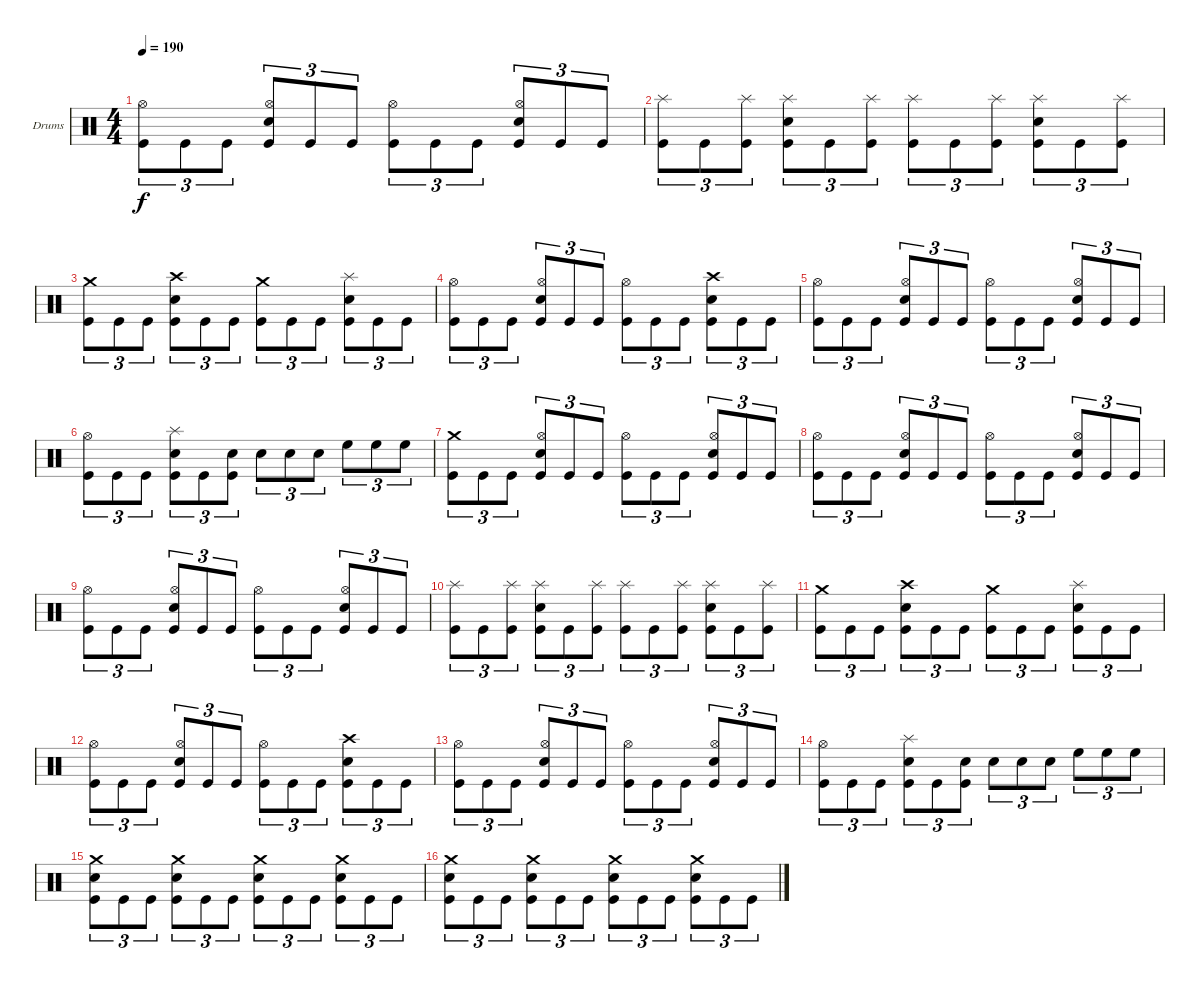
\bracketExtendMode groupsimilarinstruments
\firstSystemTrackNameOrientation horizontal
\otherSystemsTrackNameOrientation horizontal
\track ("Drumkit" "Drums") {instrument percussion}
\staff {score}
\articulation defaults
\ts (4 4)
\tempo 190
\clef neutral
\ks c
("Kick (hit)" "Hi-Hat (open)").8{tu (3 2) dy f} "Kick (hit)".8{tu (3 2)} "Kick (hit)".8{tu (3 2)} ("Kick (hit)" "Snare (hit) 2" "Hi-Hat (open)").8{tu (3 2)} "Kick (hit)".8{tu (3 2)} "Kick (hit)".8{tu (3 2)} ("Kick (hit)" "Hi-Hat (open)").8{tu (3 2)} "Kick (hit)".8{tu (3 2)} "Kick (hit)".8{tu (3 2)} ("Kick (hit)" "Snare (hit) 2" "Hi-Hat (open)").8{tu (3 2)} "Kick (hit)".8{tu (3 2)} "Kick (hit)".8{tu (3 2)} |
("Kick (hit)" "Splash (hit)").8{tu (3 2)} "Kick (hit)".8{tu (3 2)} ("Kick (hit)" "Splash (hit)").8{tu (3 2)} ("Kick (hit)" "Snare (hit) 2" "Splash (hit)").8{tu (3 2)} "Kick (hit)".8{tu (3 2)} ("Kick (hit)" "Splash (hit)").8{tu (3 2)} ("Kick (hit)" "Splash (hit)").8{tu (3 2)} "Kick (hit)".8{tu (3 2)} ("Kick (hit)" "Splash (hit)").8{tu (3 2)} ("Kick (hit)" "Snare (hit) 2" "Splash (hit)").8{tu (3 2)} "Kick (hit)".8{tu (3 2)} ("Kick (hit)" "Splash (hit)").8{tu (3 2)} |
("Kick (hit)" "Crash medium (hit)").8{tu (3 2)} "Kick (hit)".8{tu (3 2)} "Kick (hit)".8{tu (3 2)} ("Kick (hit)" "Snare (hit) 2" "Crash high (hit)").8{tu (3 2)} "Kick (hit)".8{tu (3 2)} "Kick (hit)".8{tu (3 2)} ("Kick (hit)" "Crash medium (hit)").8{tu (3 2)} "Kick (hit)".8{tu (3 2)} "Kick (hit)".8{tu (3 2)} ("Kick (hit)" "Snare (hit) 2" "Splash (hit)").8{tu (3 2)} "Kick (hit)".8{tu (3 2)} "Kick (hit)".8{tu (3 2)} |
("Kick (hit)" "Hi-Hat (open)").8{tu (3 2)} "Kick (hit)".8{tu (3 2)} "Kick (hit)".8{tu (3 2)} ("Kick (hit)" "Snare (hit) 2" "Hi-Hat (open)").8{tu (3 2)} "Kick (hit)".8{tu (3 2)} "Kick (hit)".8{tu (3 2)} ("Kick (hit)" "Hi-Hat (open)").8{tu (3 2)} "Kick (hit)".8{tu (3 2)} "Kick (hit)".8{tu (3 2)} ("Kick (hit)" "Snare (hit) 2" "Crash high (hit)").8{tu (3 2)} "Kick (hit)".8{tu (3 2)} "Kick (hit)".8{tu (3 2)} |
("Kick (hit)" "Hi-Hat (open)").8{tu (3 2)} "Kick (hit)".8{tu (3 2)} "Kick (hit)".8{tu (3 2)} ("Kick (hit)" "Snare (hit) 2" "Hi-Hat (open)").8{tu (3 2)} "Kick (hit)".8{tu (3 2)} "Kick (hit)".8{tu (3 2)} ("Kick (hit)" "Hi-Hat (open)").8{tu (3 2)} "Kick (hit)".8{tu (3 2)} "Kick (hit)".8{tu (3 2)} ("Kick (hit)" "Snare (hit) 2" "Hi-Hat (open)").8{tu (3 2)} "Kick (hit)".8{tu (3 2)} "Kick (hit)".8{tu (3 2)} |
("Kick (hit)" "Hi-Hat (open)").8{tu (3 2)} "Kick (hit)".8{tu (3 2)} "Kick (hit)".8{tu (3 2)} ("Kick (hit)" "Snare (hit) 2" "Splash (hit)").8{tu (3 2)} "Kick (hit)".8{tu (3 2)} ("Kick (hit)" "Snare (hit) 2").8{tu (3 2)} "Snare (hit) 2".8{tu (3 2)} "Snare (hit) 2".8{tu (3 2)} "Snare (hit) 2".8{tu (3 2)} "High Floor Tom (hit)".8{tu (3 2)} "High Floor Tom (hit)".8{tu (3 2)} "High Floor Tom (hit)".8{tu (3 2)} |
("Kick (hit)" "Crash medium (hit)").8{tu (3 2)} "Kick (hit)".8{tu (3 2)} "Kick (hit)".8{tu (3 2)} ("Kick (hit)" "Snare (hit) 2" "Hi-Hat (open)").8{tu (3 2)} "Kick (hit)".8{tu (3 2)} "Kick (hit)".8{tu (3 2)} ("Kick (hit)" "Hi-Hat (open)").8{tu (3 2)} "Kick (hit)".8{tu (3 2)} "Kick (hit)".8{tu (3 2)} ("Kick (hit)" "Snare (hit) 2" "Hi-Hat (open)").8{tu (3 2)} "Kick (hit)".8{tu (3 2)} "Kick (hit)".8{tu (3 2)} |
("Kick (hit)" "Hi-Hat (open)").8{tu (3 2)} "Kick (hit)".8{tu (3 2)} "Kick (hit)".8{tu (3 2)} ("Kick (hit)" "Snare (hit) 2" "Hi-Hat (open)").8{tu (3 2)} "Kick (hit)".8{tu (3 2)} "Kick (hit)".8{tu (3 2)} ("Kick (hit)" "Hi-Hat (open)").8{tu (3 2)} "Kick (hit)".8{tu (3 2)} "Kick (hit)".8{tu (3 2)} ("Kick (hit)" "Snare (hit) 2" "Hi-Hat (open)").8{tu (3 2)} "Kick (hit)".8{tu (3 2)} "Kick (hit)".8{tu (3 2)} |
("Kick (hit)" "Hi-Hat (open)").8{tu (3 2)} "Kick (hit)".8{tu (3 2)} "Kick (hit)".8{tu (3 2)} ("Kick (hit)" "Snare (hit) 2" "Hi-Hat (open)").8{tu (3 2)} "Kick (hit)".8{tu (3 2)} "Kick (hit)".8{tu (3 2)} ("Kick (hit)" "Hi-Hat (open)").8{tu (3 2)} "Kick (hit)".8{tu (3 2)} "Kick (hit)".8{tu (3 2)} ("Kick (hit)" "Snare (hit) 2" "Hi-Hat (open)").8{tu (3 2)} "Kick (hit)".8{tu (3 2)} "Kick (hit)".8{tu (3 2)} |
("Kick (hit)" "Splash (hit)").8{tu (3 2)} "Kick (hit)".8{tu (3 2)} ("Kick (hit)" "Splash (hit)").8{tu (3 2)} ("Kick (hit)" "Snare (hit) 2" "Splash (hit)").8{tu (3 2)} "Kick (hit)".8{tu (3 2)} ("Kick (hit)" "Splash (hit)").8{tu (3 2)} ("Kick (hit)" "Splash (hit)").8{tu (3 2)} "Kick (hit)".8{tu (3 2)} ("Kick (hit)" "Splash (hit)").8{tu (3 2)} ("Kick (hit)" "Snare (hit) 2" "Splash (hit)").8{tu (3 2)} "Kick (hit)".8{tu (3 2)} ("Kick (hit)" "Splash (hit)").8{tu (3 2)} |
("Kick (hit)" "Crash medium (hit)").8{tu (3 2)} "Kick (hit)".8{tu (3 2)} "Kick (hit)".8{tu (3 2)} ("Kick (hit)" "Snare (hit) 2" "Crash high (hit)").8{tu (3 2)} "Kick (hit)".8{tu (3 2)} "Kick (hit)".8{tu (3 2)} ("Kick (hit)" "Crash medium (hit)").8{tu (3 2)} "Kick (hit)".8{tu (3 2)} "Kick (hit)".8{tu (3 2)} ("Kick (hit)" "Snare (hit) 2" "Splash (hit)").8{tu (3 2)} "Kick (hit)".8{tu (3 2)} "Kick (hit)".8{tu (3 2)} |
("Kick (hit)" "Hi-Hat (open)").8{tu (3 2)} "Kick (hit)".8{tu (3 2)} "Kick (hit)".8{tu (3 2)} ("Kick (hit)" "Snare (hit) 2" "Hi-Hat (open)").8{tu (3 2)} "Kick (hit)".8{tu (3 2)} "Kick (hit)".8{tu (3 2)} ("Kick (hit)" "Hi-Hat (open)").8{tu (3 2)} "Kick (hit)".8{tu (3 2)} "Kick (hit)".8{tu (3 2)} ("Kick (hit)" "Snare (hit) 2" "Crash high (hit)").8{tu (3 2)} "Kick (hit)".8{tu (3 2)} "Kick (hit)".8{tu (3 2)} |
("Kick (hit)" "Hi-Hat (open)").8{tu (3 2)} "Kick (hit)".8{tu (3 2)} "Kick (hit)".8{tu (3 2)} ("Kick (hit)" "Snare (hit) 2" "Hi-Hat (open)").8{tu (3 2)} "Kick (hit)".8{tu (3 2)} "Kick (hit)".8{tu (3 2)} ("Kick (hit)" "Hi-Hat (open)").8{tu (3 2)} "Kick (hit)".8{tu (3 2)} "Kick (hit)".8{tu (3 2)} ("Kick (hit)" "Snare (hit) 2" "Hi-Hat (open)").8{tu (3 2)} "Kick (hit)".8{tu (3 2)} "Kick (hit)".8{tu (3 2)} |
("Kick (hit)" "Hi-Hat (open)").8{tu (3 2)} "Kick (hit)".8{tu (3 2)} "Kick (hit)".8{tu (3 2)} ("Kick (hit)" "Snare (hit) 2" "Splash (hit)").8{tu (3 2)} "Kick (hit)".8{tu (3 2)} ("Kick (hit)" "Snare (hit) 2").8{tu (3 2)} "Snare (hit) 2".8{tu (3 2)} "Snare (hit) 2".8{tu (3 2)} "Snare (hit) 2".8{tu (3 2)} "High Floor Tom (hit)".8{tu (3 2)} "High Floor Tom (hit)".8{tu (3 2)} "High Floor Tom (hit)".8{tu (3 2)} |
("Kick (hit)" "Snare (hit) 2" "Crash medium (hit)").8{tu (3 2)} "Kick (hit)".8{tu (3 2)} "Kick (hit)".8{tu (3 2)} ("Kick (hit)" "Snare (hit) 2" "Crash medium (hit)").8{tu (3 2)} "Kick (hit)".8{tu (3 2)} "Kick (hit)".8{tu (3 2)} ("Kick (hit)" "Snare (hit) 2" "Crash medium (hit)").8{tu (3 2)} "Kick (hit)".8{tu (3 2)} "Kick (hit)".8{tu (3 2)} ("Kick (hit)" "Snare (hit) 2" "Crash medium (hit)").8{tu (3 2)} "Kick (hit)".8{tu (3 2)} "Kick (hit)".8{tu (3 2)} |
("Kick (hit)" "Snare (hit) 2" "Crash medium (hit)").8{tu (3 2)} "Kick (hit)".8{tu (3 2)} "Kick (hit)".8{tu (3 2)} ("Kick (hit)" "Snare (hit) 2" "Crash medium (hit)").8{tu (3 2)} "Kick (hit)".8{tu (3 2)} "Kick (hit)".8{tu (3 2)} ("Kick (hit)" "Snare (hit) 2" "Crash medium (hit)").8{tu (3 2)} "Kick (hit)".8{tu (3 2)} "Kick (hit)".8{tu (3 2)} ("Kick (hit)" "Snare (hit) 2" "Crash medium (hit)").8{tu (3 2)} "Kick (hit)".8{tu (3 2)} "Kick (hit)".8{tu (3 2)}
